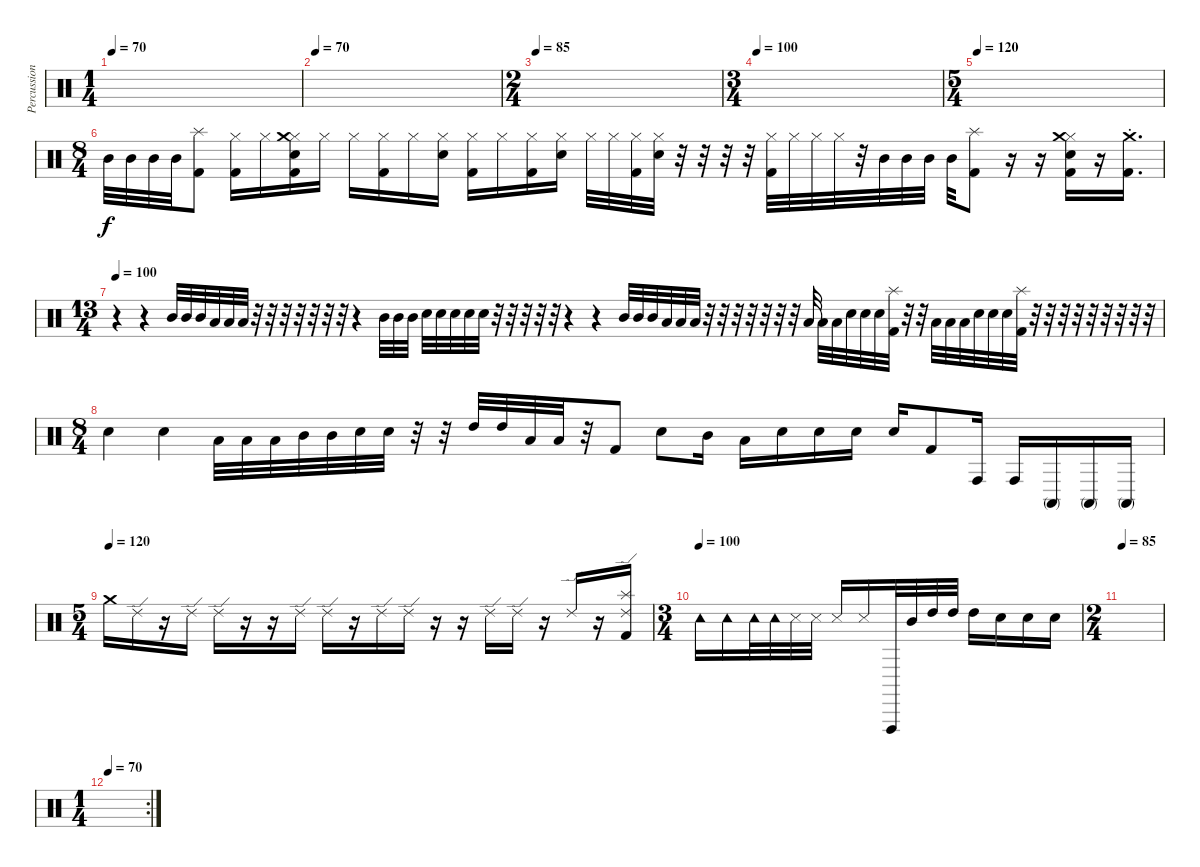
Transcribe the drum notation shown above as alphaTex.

\track ("Percussion" "Percussion") {instrument percussion}
\staff {score}
\articulation defaults
\ts (1 4)
\tempo 70
\clef neutral
\ks c
|
\tempo 70
|
\ts (2 4)
\tempo 85
|
\ts (3 4)
\tempo 100
|
\ts (5 4)
\tempo 120
|
\ts (8 4)
"Mid Tom (hit)".32 "Mid Tom (hit)".32 "Mid Tom (hit)".32 "Mid Tom (hit)".32 ("Kick (hit) 2" "Splash (hit)").8 ("Hi-Hat (closed)" "Kick (hit) 2").16 "Hi-Hat (closed)".16 ("Hi-Hat (closed)" "Crash medium (hit)" "Snare (hit) 2" "Kick (hit) 2").16 "Hi-Hat (closed)".16 "Hi-Hat (closed)".16 ("Hi-Hat (closed)" "Kick (hit) 2").16 "Hi-Hat (closed)".16 ("Hi-Hat (closed)" "Snare (hit) 2").16 ("Hi-Hat (closed)" "Kick (hit) 2").16 "Hi-Hat (closed)".16 ("Hi-Hat (closed)" "Kick (hit) 2").16 ("Hi-Hat (closed)" "Snare (hit) 2").16 "Hi-Hat (closed)".32 "Hi-Hat (closed)".32 ("Hi-Hat (closed)" "Kick (hit) 2").32 ("Hi-Hat (closed)" "Snare (hit) 2").32 r.32 r.32 r.32 r.32 ("Hi-Hat (closed)" "Kick (hit) 2").32 "Hi-Hat (closed)".32 "Hi-Hat (closed)".32 "Hi-Hat (closed)".32 r.32 "Mid Tom (hit)".32 "Mid Tom (hit)".32 "Mid Tom (hit)".32 "Mid Tom (hit)".32 ("Kick (hit) 2" "Splash (hit)").8 r.16 r.16 ("Hi-Hat (closed)" "Crash medium (hit)" "Snare (hit) 2" "Kick (hit) 2").16 r.16 ("Crash medium (hit)"{st} "Kick (hit) 2"{st}).16{d} |
\ts (13 4)
\tempo 100
r.4 r.4 "Mid Tom (hit)".32 "Mid Tom (hit)".32 "Mid Tom (hit)".32 "Low Tom (hit)".32 "Low Tom (hit)".32 "Low Tom (hit)".32 r.32 r.32 r.32 r.32 r.32 r.32 r.32 r.4 "Mid Tom (hit)".32 "Mid Tom (hit)".32 "Mid Tom (hit)".32 "Snare (hit) 2".32 "Snare (hit) 2".32 "Snare (hit) 2".32 "Snare (hit) 2".32 "Snare (hit) 2".32 r.32 r.32 r.32 r.32 r.32 r.4 r.4 "Mid Tom (hit)".32 "Mid Tom (hit)".32 "Mid Tom (hit)".32 "Low Tom (hit)".32 "Low Tom (hit)".32 "Low Tom (hit)".32 r.32 r.32 r.32 r.32 r.32 r.32 r.32 "Low Tom (hit)".32 "Low Tom (hit)".32 "Low Tom (hit)".32 "Snare (hit) 2".32 "Snare (hit) 2".32 "Snare (hit) 2".32 ("Kick (hit) 2" "Splash (hit)").32 r.32 r.32 "Low Tom (hit)".32 "Low Tom (hit)".32 "Low Tom (hit)".32 "Snare (hit) 2".32 "Snare (hit) 2".32 "Snare (hit) 2".32 ("Kick (hit) 2" "Splash (hit)").32 r.32 r.32 r.32 r.32 r.32 r.32 r.32 r.32 r.32 |
\ts (8 4)
"Snare (hit) 2".4 "Snare (hit) 2".4 "Low Tom (hit)".32 "Low Tom (hit)".32 "Low Tom (hit)".32 "Mid Tom (hit)".32 "Mid Tom (hit)".32 "Snare (hit) 2".32 "Snare (hit) 2".32 r.32 r.32 "High Tom (hit)".32 "High Tom (hit)".32 "Low Tom (hit)".32 "Low Tom (hit)".32 r.32 "Kick (hit) 2".8 "Snare (hit) 2".8 "Mid Tom (hit)".16 "Low Tom (hit)".16 "Snare (hit) 2".16 "Snare (hit) 2".16 "Snare (hit) 2".16 "Snare (hit) 2".16 "Kick (hit) 2".8 "Conga high (hit)".16 "Conga high (hit)".16 "Conga high (mute)".16 "Conga high (mute)".16 "Conga high (mute)".16 |
\ts (5 4)
\tempo (120)
"Crash medium (hit)".16 "Ride (edge) 2".16 r.16 "Ride (edge) 2".16 "Ride (edge) 2".16 r.16 r.16 "Ride (edge) 2".16 "Ride (edge) 2".16 r.16 "Ride (edge) 2".16 "Ride (edge) 2".16 r.16 r.16 "Ride (edge) 2".16 "Ride (edge) 2".16 r.16 "Ride (edge) 2".16 r.16 ("Kick (hit) 2" "Splash (hit)" "Ride (edge) 2").16 |
\ts (3 4)
\tempo (100)
"Tambourine (hit)".16 "Tambourine (hit)".16 "Tambourine (hit)".32 "Tambourine (hit)".32 "Snare (side stick) 3".32 "Snare (side stick) 3".32 "Snare (side stick) 3".16 "Snare (side stick) 3".16 "Vibraslap (hit)".32 "Mid Tom (hit)".32 "High Tom (hit)".32 "High Tom (hit)".32 "High Tom (hit)".16 "Snare (hit) 2".16 "Snare (hit) 2".16 "Snare (hit) 2".16 |
\ts (2 4)
\tempo 85
|
\rc 2
\ts (1 4)
\tempo 70
